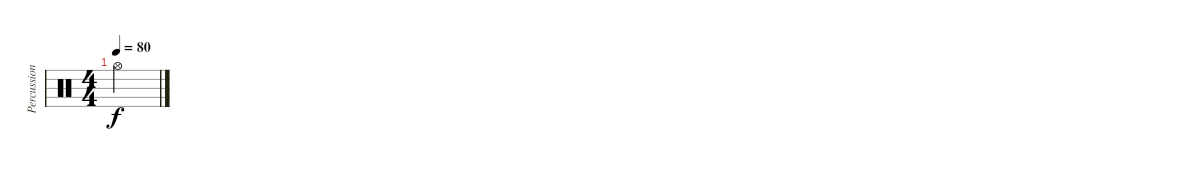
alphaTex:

\track ("Percussion" "Percussion") {instrument percussion}
\staff {score}
\articulation defaults
\ts (4 4)
\tempo 80
\clef neutral
\ks c "Hi-Hat (open)".2{dy f}
